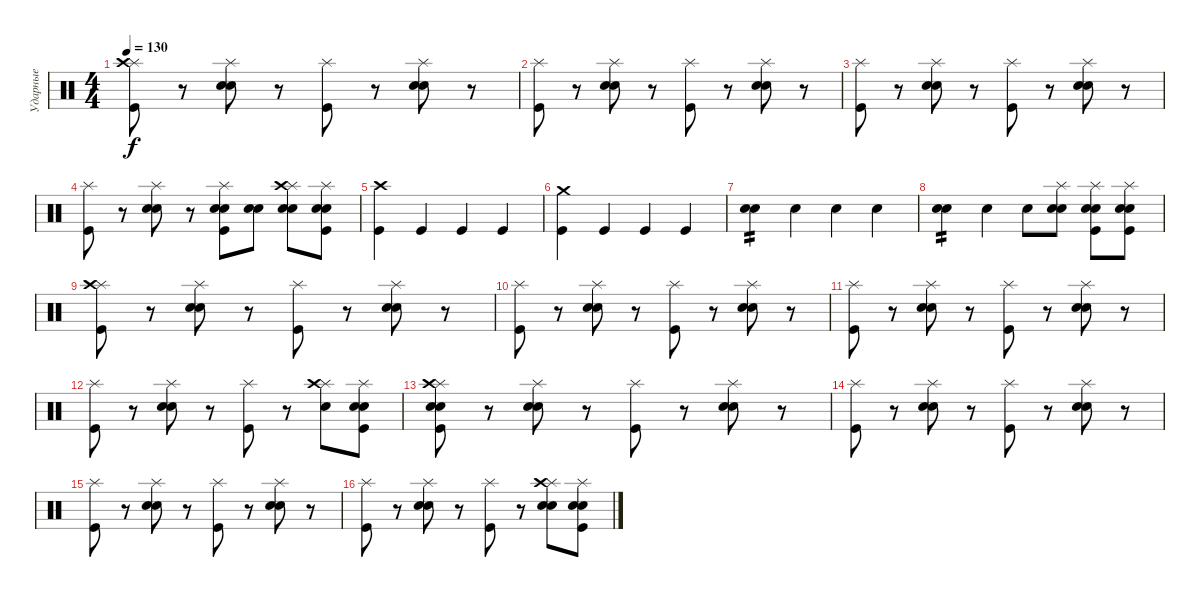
\track ("Ударные" "Ударные") {instrument percussion}
\staff {score}
\articulation defaults
\ts (4 4)
\tempo 130
\clef neutral
\ks c
("Splash (hit)" "Crash high (hit)" "Kick (hit)").8{dy f} r.8 ("Splash (hit)" "Electric Snare (hit)" "Electric Snare (hit)").8 r.8 ("Splash (hit)" "Kick (hit)").8 r.8 ("Splash (hit)" "Electric Snare (hit)" "Electric Snare (hit)").8 r.8 |
("Splash (hit)" "Kick (hit)").8 r.8 ("Splash (hit)" "Electric Snare (hit)" "Electric Snare (hit)").8 r.8 ("Splash (hit)" "Kick (hit)").8 r.8 ("Splash (hit)" "Electric Snare (hit)" "Electric Snare (hit)").8 r.8 |
("Splash (hit)" "Kick (hit)").8 r.8 ("Splash (hit)" "Electric Snare (hit)" "Electric Snare (hit)").8 r.8 ("Splash (hit)" "Kick (hit)").8 r.8 ("Splash (hit)" "Electric Snare (hit)" "Electric Snare (hit)").8 r.8 |
("Splash (hit)" "Kick (hit)").8 r.8 ("Splash (hit)" "Electric Snare (hit)" "Electric Snare (hit)").8 r.8 ("Splash (hit)" "Electric Snare (hit)" "Electric Snare (hit)" "Kick (hit)").8 ("Snare (hit) 2" "Snare (hit) 2").8 ("Splash (hit)" "Crash high (hit)" "Electric Snare (hit)" "Electric Snare (hit)").8 ("Splash (hit)" "Snare (hit) 2" "Snare (hit) 2" "Kick (hit)").8 |
("Crash high (hit)" "Kick (hit)").4 "Kick (hit)".4 "Kick (hit)".4 "Kick (hit)".4 |
("Crash medium (hit)" "Kick (hit)").4 "Kick (hit)".4 "Kick (hit)".4 "Kick (hit)".4 |
("Electric Snare (hit)" "Electric Snare (hit)").4{tp 2} "Electric Snare (hit)".4 "Electric Snare (hit)".4 "Electric Snare (hit)".4 |
("Electric Snare (hit)" "Electric Snare (hit)").4{tp 2} "Electric Snare (hit)".4 "Electric Snare (hit)".8 ("Splash (hit)" "Electric Snare (hit)" "Electric Snare (hit)").8 ("Splash (hit)" "Electric Snare (hit)" "Electric Snare (hit)" "Kick (hit)").8 ("Splash (hit)" "Electric Snare (hit)" "Electric Snare (hit)" "Kick (hit)").8 |
("Splash (hit)" "Crash high (hit)" "Kick (hit)").8 r.8 ("Splash (hit)" "Electric Snare (hit)" "Electric Snare (hit)").8 r.8 ("Splash (hit)" "Kick (hit)").8 r.8 ("Splash (hit)" "Electric Snare (hit)" "Electric Snare (hit)").8 r.8 |
("Splash (hit)" "Kick (hit)").8 r.8 ("Splash (hit)" "Electric Snare (hit)" "Electric Snare (hit)").8 r.8 ("Splash (hit)" "Kick (hit)").8 r.8 ("Splash (hit)" "Electric Snare (hit)" "Electric Snare (hit)").8 r.8 |
("Splash (hit)" "Kick (hit)").8 r.8 ("Splash (hit)" "Electric Snare (hit)" "Electric Snare (hit)").8 r.8 ("Splash (hit)" "Kick (hit)").8 r.8 ("Splash (hit)" "Electric Snare (hit)" "Electric Snare (hit)").8 r.8 |
("Splash (hit)" "Kick (hit)").8 r.8 ("Splash (hit)" "Electric Snare (hit)" "Electric Snare (hit)").8 r.8 ("Splash (hit)" "Kick (hit)").8 r.8 ("Splash (hit)" "Crash high (hit)" "Electric Snare (hit)").8 ("Splash (hit)" "Electric Snare (hit)" "Electric Snare (hit)" "Kick (hit)").8 |
("Splash (hit)" "Crash high (hit)" "Electric Snare (hit)" "Electric Snare (hit)" "Kick (hit)").8 r.8 ("Splash (hit)" "Electric Snare (hit)" "Electric Snare (hit)").8 r.8 ("Splash (hit)" "Kick (hit)").8 r.8 ("Splash (hit)" "Electric Snare (hit)" "Electric Snare (hit)").8 r.8 |
("Splash (hit)" "Kick (hit)").8 r.8 ("Splash (hit)" "Electric Snare (hit)" "Electric Snare (hit)").8 r.8 ("Splash (hit)" "Kick (hit)").8 r.8 ("Splash (hit)" "Electric Snare (hit)" "Electric Snare (hit)").8 r.8 |
("Splash (hit)" "Kick (hit)").8 r.8 ("Splash (hit)" "Electric Snare (hit)" "Electric Snare (hit)").8 r.8 ("Splash (hit)" "Kick (hit)").8 r.8 ("Splash (hit)" "Electric Snare (hit)" "Electric Snare (hit)").8 r.8 |
("Splash (hit)" "Kick (hit)").8 r.8 ("Splash (hit)" "Electric Snare (hit)" "Electric Snare (hit)").8 r.8 ("Splash (hit)" "Kick (hit)").8 r.8 ("Splash (hit)" "Crash high (hit)" "Electric Snare (hit)" "Electric Snare (hit)").8 ("Splash (hit)" "Electric Snare (hit)" "Electric Snare (hit)" "Kick (hit)").8
